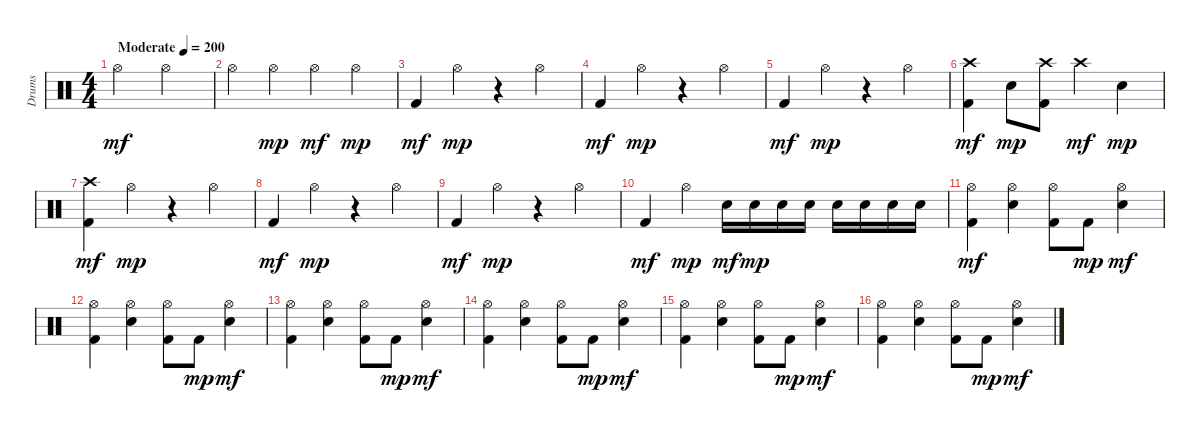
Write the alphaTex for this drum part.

\track ("Drums" "Drums") {instrument percussion}
\staff {score}
\articulation defaults
\ts (4 4)
\tempo (200 "Moderate")
\clef neutral
\ks c "Hi-Hat (open)".2{dy mf} "Hi-Hat (open)".2
|
"Hi-Hat (open)".4 "Hi-Hat (open)".4{dy mp} "Hi-Hat (open)".4{dy mf} "Hi-Hat (open)".4{dy mp} |
"Kick (hit) 2".4{dy mf} "Hi-Hat (open)".4{dy mp} r.4 "Hi-Hat (open)".4 |
"Kick (hit) 2".4{dy mf} "Hi-Hat (open)".4{dy mp} r.4 "Hi-Hat (open)".4 |
"Kick (hit) 2".4{dy mf} "Hi-Hat (open)".4{dy mp} r.4 "Hi-Hat (open)".4 |
("Crash high (hit)" "Kick (hit) 2").4{dy mf} "Snare (hit) 2".8{dy mp} ("Crash high (hit)" "Kick (hit) 2").8 "Crash high (hit)".4{dy mf} "Snare (hit) 2".4{dy mp} |
("Crash high (hit)" "Kick (hit) 2").4{dy mf} "Hi-Hat (open)".4{dy mp} r.4 "Hi-Hat (open)".4 |
"Kick (hit) 2".4{dy mf} "Hi-Hat (open)".4{dy mp} r.4 "Hi-Hat (open)".4 |
"Kick (hit) 2".4{dy mf} "Hi-Hat (open)".4{dy mp} r.4 "Hi-Hat (open)".4 |
"Kick (hit) 2".4{dy mf} "Hi-Hat (open)".4{dy mp} "Snare (hit) 2".16{dy mf} "Snare (hit) 2".16{dy mp} "Snare (hit) 2".16 "Snare (hit) 2".16 "Snare (hit) 2".16 "Snare (hit) 2".16 "Snare (hit) 2".16 "Snare (hit) 2".16 |
("Hi-Hat (open)" "Kick (hit) 2").4{dy mf} ("Snare (hit) 2" "Hi-Hat (open)").4 ("Hi-Hat (open)" "Kick (hit) 2").8 "Kick (hit) 2".8{dy mp} ("Snare (hit) 2" "Hi-Hat (open)").4{dy mf} |
("Hi-Hat (open)" "Kick (hit) 2").4 ("Snare (hit) 2" "Hi-Hat (open)").4 ("Hi-Hat (open)" "Kick (hit) 2").8 "Kick (hit) 2".8{dy mp} ("Snare (hit) 2" "Hi-Hat (open)").4{dy mf} |
("Hi-Hat (open)" "Kick (hit) 2").4 ("Snare (hit) 2" "Hi-Hat (open)").4 ("Hi-Hat (open)" "Kick (hit) 2").8 "Kick (hit) 2".8{dy mp} ("Snare (hit) 2" "Hi-Hat (open)").4{dy mf} |
("Hi-Hat (open)" "Kick (hit) 2").4 ("Snare (hit) 2" "Hi-Hat (open)").4 ("Hi-Hat (open)" "Kick (hit) 2").8 "Kick (hit) 2".8{dy mp} ("Snare (hit) 2" "Hi-Hat (open)").4{dy mf} |
("Hi-Hat (open)" "Kick (hit) 2").4 ("Snare (hit) 2" "Hi-Hat (open)").4 ("Hi-Hat (open)" "Kick (hit) 2").8 "Kick (hit) 2".8{dy mp} ("Snare (hit) 2" "Hi-Hat (open)").4{dy mf} |
("Hi-Hat (open)" "Kick (hit) 2").4 ("Snare (hit) 2" "Hi-Hat (open)").4 ("Hi-Hat (open)" "Kick (hit) 2").8 "Kick (hit) 2".8{dy mp} ("Snare (hit) 2" "Hi-Hat (open)").4{dy mf}
